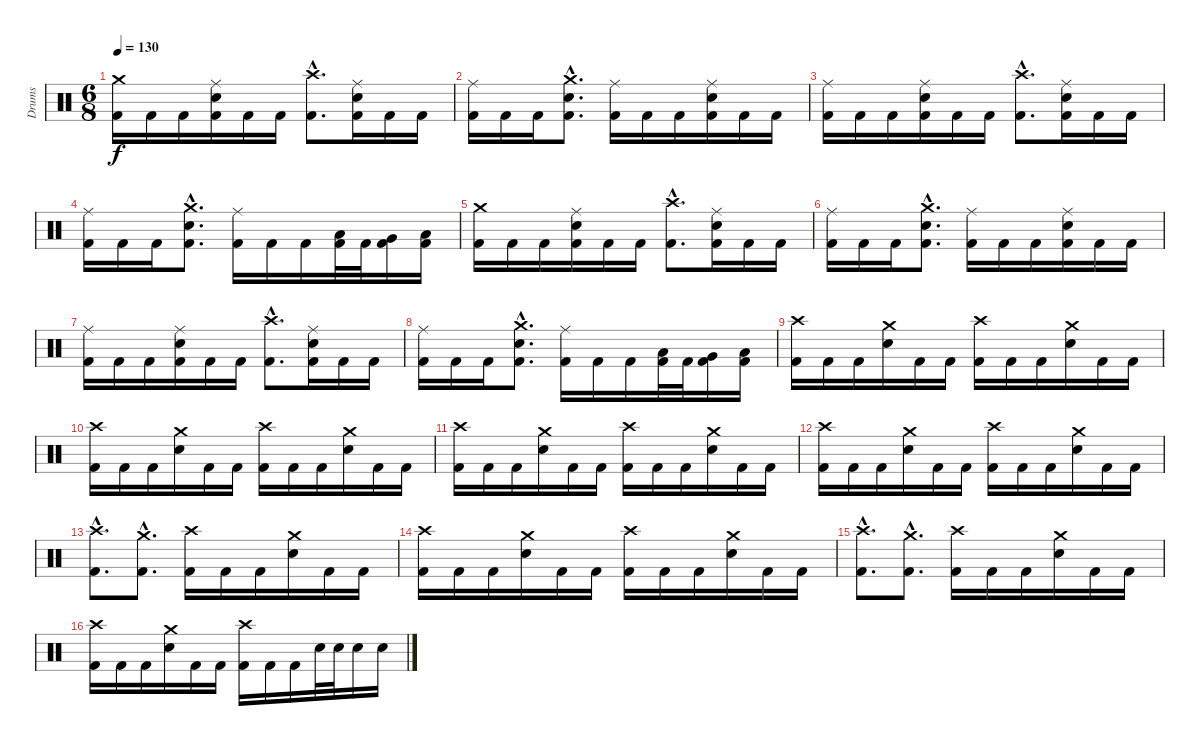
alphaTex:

\track ("Drums" "Drums") {instrument percussion}
\staff {score}
\articulation defaults
\ts (6 8)
\section ("" "")
\tempo 130
\clef neutral
\ks c
("Crash medium (hit)" "Kick (hit) 2").16{dy f} "Kick (hit) 2".16 "Kick (hit) 2".16 ("Ride (middle)" "Electric Snare (hit)" "Kick (hit) 2").16 "Kick (hit) 2".16 "Kick (hit) 2".16 ("Crash high (hit)"{hac} "Kick (hit) 2"{hac}).8{d} ("Ride (middle)" "Electric Snare (hit)" "Kick (hit) 2").16 "Kick (hit) 2".16 "Kick (hit) 2".16 |
("Ride (middle)" "Kick (hit) 2").16 "Kick (hit) 2".16 "Kick (hit) 2".16 ("Crash medium (hit)"{hac} "Electric Snare (hit)"{hac} "Kick (hit) 2"{hac}).8{d} ("Ride (middle)" "Kick (hit) 2").16 "Kick (hit) 2".16 "Kick (hit) 2".16 ("Ride (middle)" "Electric Snare (hit)" "Kick (hit) 2").16 "Kick (hit) 2".16 "Kick (hit) 2".16 |
("Ride (middle)" "Kick (hit) 2").16 "Kick (hit) 2".16 "Kick (hit) 2".16 ("Ride (middle)" "Electric Snare (hit)" "Kick (hit) 2").16 "Kick (hit) 2".16 "Kick (hit) 2".16 ("Crash high (hit)"{hac} "Kick (hit) 2"{hac}).8{d} ("Ride (middle)" "Electric Snare (hit)" "Kick (hit) 2").16 "Kick (hit) 2".16 "Kick (hit) 2".16 |
("Ride (middle)" "Kick (hit) 2").16 "Kick (hit) 2".16 "Kick (hit) 2".16 ("Crash medium (hit)"{hac} "Electric Snare (hit)"{hac} "Kick (hit) 2"{hac}).8{d} ("Ride (middle)" "Kick (hit) 2").16 "Kick (hit) 2".16 "Kick (hit) 2".16 ("Low Tom (hit)" "Kick (hit) 2").32 "Kick (hit) 2".32 ("Very Low Tom (hit)" "Kick (hit) 2").16 ("Low Floor Tom (hit)" "Kick (hit) 2").16 |
("Crash medium (hit)" "Kick (hit) 2").16 "Kick (hit) 2".16 "Kick (hit) 2".16 ("Ride (middle)" "Electric Snare (hit)" "Kick (hit) 2").16 "Kick (hit) 2".16 "Kick (hit) 2".16 ("Crash high (hit)"{hac} "Kick (hit) 2"{hac}).8{d} ("Ride (middle)" "Electric Snare (hit)" "Kick (hit) 2").16 "Kick (hit) 2".16 "Kick (hit) 2".16 |
("Ride (middle)" "Kick (hit) 2").16 "Kick (hit) 2".16 "Kick (hit) 2".16 ("Crash medium (hit)"{hac} "Electric Snare (hit)"{hac} "Kick (hit) 2"{hac}).8{d} ("Ride (middle)" "Kick (hit) 2").16 "Kick (hit) 2".16 "Kick (hit) 2".16 ("Ride (middle)" "Electric Snare (hit)" "Kick (hit) 2").16 "Kick (hit) 2".16 "Kick (hit) 2".16 |
("Ride (middle)" "Kick (hit) 2").16 "Kick (hit) 2".16 "Kick (hit) 2".16 ("Ride (middle)" "Electric Snare (hit)" "Kick (hit) 2").16 "Kick (hit) 2".16 "Kick (hit) 2".16 ("Crash high (hit)"{hac} "Kick (hit) 2"{hac}).8{d} ("Ride (middle)" "Electric Snare (hit)" "Kick (hit) 2").16 "Kick (hit) 2".16 "Kick (hit) 2".16 |
("Ride (middle)" "Kick (hit) 2").16 "Kick (hit) 2".16 "Kick (hit) 2".16 ("Crash medium (hit)"{hac} "Electric Snare (hit)"{hac} "Kick (hit) 2"{hac}).8{d} ("Ride (middle)" "Kick (hit) 2").16 "Kick (hit) 2".16 "Kick (hit) 2".16 ("Low Tom (hit)" "Kick (hit) 2").32 "Kick (hit) 2".32 ("Very Low Tom (hit)" "Kick (hit) 2").16 ("Low Floor Tom (hit)" "Kick (hit) 2").16 |
\section ("" "")
("Crash high (hit)" "Kick (hit) 2").16 "Kick (hit) 2".16 "Kick (hit) 2".16 ("Crash medium (hit)" "Electric Snare (hit)").16 "Kick (hit) 2".16 "Kick (hit) 2".16 ("Crash high (hit)" "Kick (hit) 2").16 "Kick (hit) 2".16 "Kick (hit) 2".16 ("Crash medium (hit)" "Electric Snare (hit)").16 "Kick (hit) 2".16 "Kick (hit) 2".16 |
("Crash high (hit)" "Kick (hit) 2").16 "Kick (hit) 2".16 "Kick (hit) 2".16 ("Crash medium (hit)" "Electric Snare (hit)").16 "Kick (hit) 2".16 "Kick (hit) 2".16 ("Crash high (hit)" "Kick (hit) 2").16 "Kick (hit) 2".16 "Kick (hit) 2".16 ("Crash medium (hit)" "Electric Snare (hit)").16 "Kick (hit) 2".16 "Kick (hit) 2".16 |
("Crash high (hit)" "Kick (hit) 2").16 "Kick (hit) 2".16 "Kick (hit) 2".16 ("Crash medium (hit)" "Electric Snare (hit)").16 "Kick (hit) 2".16 "Kick (hit) 2".16 ("Crash high (hit)" "Kick (hit) 2").16 "Kick (hit) 2".16 "Kick (hit) 2".16 ("Crash medium (hit)" "Electric Snare (hit)").16 "Kick (hit) 2".16 "Kick (hit) 2".16 |
("Crash high (hit)" "Kick (hit) 2").16 "Kick (hit) 2".16 "Kick (hit) 2".16 ("Crash medium (hit)" "Electric Snare (hit)").16 "Kick (hit) 2".16 "Kick (hit) 2".16 ("Crash high (hit)" "Kick (hit) 2").16 "Kick (hit) 2".16 "Kick (hit) 2".16 ("Crash medium (hit)" "Electric Snare (hit)").16 "Kick (hit) 2".16 "Kick (hit) 2".16 |
("Crash high (hit)"{hac} "Kick (hit) 2"{hac}).8{d} ("Crash medium (hit)"{hac} "Kick (hit) 2"{hac}).8{d} ("Crash high (hit)" "Kick (hit) 2").16 "Kick (hit) 2".16 "Kick (hit) 2".16 ("Crash medium (hit)" "Electric Snare (hit)").16 "Kick (hit) 2".16 "Kick (hit) 2".16 |
("Crash high (hit)" "Kick (hit) 2").16 "Kick (hit) 2".16 "Kick (hit) 2".16 ("Crash medium (hit)" "Electric Snare (hit)").16 "Kick (hit) 2".16 "Kick (hit) 2".16 ("Crash high (hit)" "Kick (hit) 2").16 "Kick (hit) 2".16 "Kick (hit) 2".16 ("Crash medium (hit)" "Electric Snare (hit)").16 "Kick (hit) 2".16 "Kick (hit) 2".16 |
("Crash high (hit)"{hac} "Kick (hit) 2"{hac}).8{d} ("Crash medium (hit)"{hac} "Kick (hit) 2"{hac}).8{d} ("Crash high (hit)" "Kick (hit) 2").16 "Kick (hit) 2".16 "Kick (hit) 2".16 ("Crash medium (hit)" "Electric Snare (hit)").16 "Kick (hit) 2".16 "Kick (hit) 2".16 |
("Crash high (hit)" "Kick (hit) 2").16 "Kick (hit) 2".16 "Kick (hit) 2".16 ("Crash medium (hit)" "Electric Snare (hit)").16 "Kick (hit) 2".16 "Kick (hit) 2".16 ("Crash high (hit)" "Kick (hit) 2").16 "Kick (hit) 2".16 "Kick (hit) 2".16 "Electric Snare (hit)".32 "Electric Snare (hit)".32 "Electric Snare (hit)".16 "Electric Snare (hit)".16
